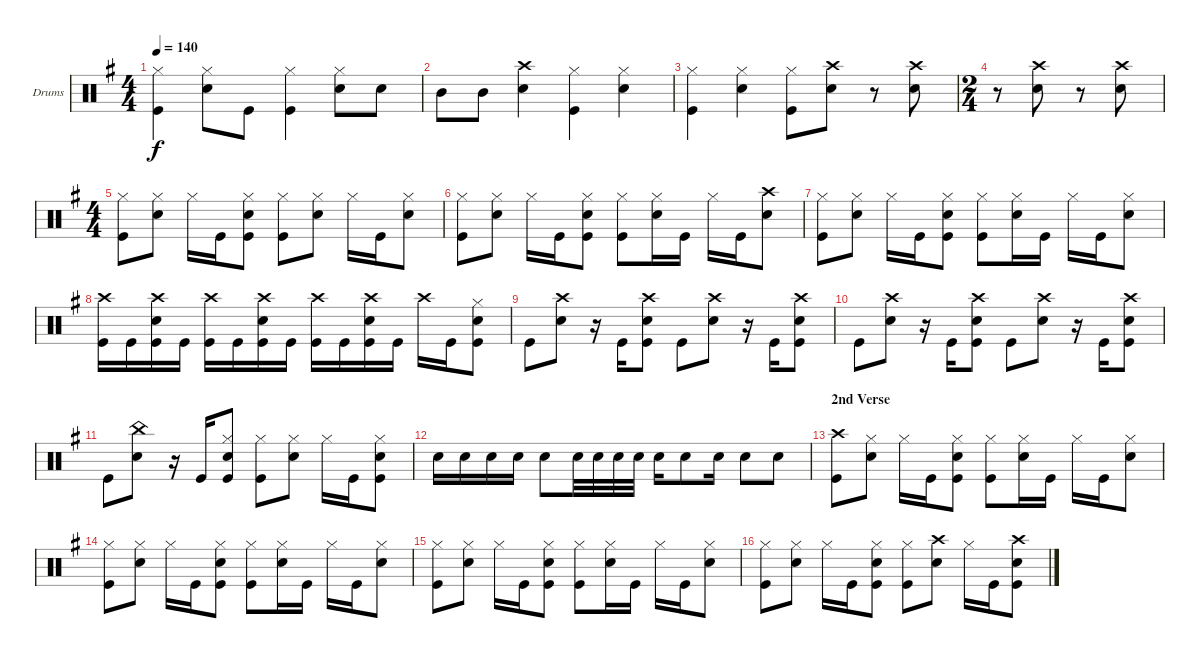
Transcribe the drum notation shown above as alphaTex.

\bracketExtendMode groupsimilarinstruments
\firstSystemTrackNameOrientation horizontal
\otherSystemsTrackNameOrientation horizontal
\track ("Drumkit" "Drums") {instrument percussion}
\staff {score}
\articulation defaults
\ts (4 4)
\tempo 140
\clef neutral
\scale
1.04288
\ks g
("Kick (hit)" "Hi-Hat (closed)").4{dy f} ("Hi-Hat (closed)" "Snare (hit) 2").8 "Kick (hit)".8 ("Kick (hit)" "Hi-Hat (closed)").4 ("Hi-Hat (closed)" "Snare (hit) 2").8 "Snare (hit) 2".8 |
\scale
0.957125 "Mid Tom (hit)".8 "Mid Tom (hit)".8 ("Snare (hit) 2" "Crash high (hit)").4 ("Kick (hit)" "Hi-Hat (closed)").4 ("Hi-Hat (closed)" "Snare (hit) 2").4 |
\scale
1.04288 ("Kick (hit)" "Hi-Hat (closed)").4 ("Hi-Hat (closed)" "Snare (hit) 2").4 ("Hi-Hat (closed)" "Kick (hit)").8 ("Crash high (hit)" "Snare (hit) 2").8 r.8 ("Snare (hit) 2" "Crash high (hit)").8 |
\ts (2 4)
\scale
0.957125 r.8 ("Crash high (hit)" "Snare (hit) 2").8 r.8 ("Crash high (hit)" "Snare (hit) 2").8 |
\ts (4 4)
\scale
1.07314 ("Hi-Hat (closed)" "Kick (hit)").8 ("Snare (hit) 2" "Hi-Hat (closed)").8 "Hi-Hat (closed)".16 "Kick (hit)".16 ("Snare (hit) 2" "Hi-Hat (closed)" "Kick (hit)").8 ("Hi-Hat (closed)" "Kick (hit)").8 ("Snare (hit) 2" "Hi-Hat (closed)").8 "Hi-Hat (closed)".16 "Kick (hit)".16 ("Snare (hit) 2" "Hi-Hat (closed)").8 |
\scale
0.92686 ("Kick (hit)" "Hi-Hat (closed)").8 ("Snare (hit) 2" "Hi-Hat (closed)").8 "Hi-Hat (closed)".16 "Kick (hit)".16 ("Kick (hit)" "Snare (hit) 2" "Hi-Hat (closed)").8 ("Kick (hit)" "Hi-Hat (closed)").8 ("Snare (hit) 2" "Hi-Hat (closed)").16 "Kick (hit)".16 "Hi-Hat (closed)".16 "Kick (hit)".16 ("Crash high (hit)" "Snare (hit) 2").8 |
\scale
1.04288 ("Kick (hit)" "Hi-Hat (closed)").8 ("Snare (hit) 2" "Hi-Hat (closed)").8 "Hi-Hat (closed)".16 "Kick (hit)".16 ("Kick (hit)" "Snare (hit) 2" "Hi-Hat (closed)").8 ("Kick (hit)" "Hi-Hat (closed)").8 ("Snare (hit) 2" "Hi-Hat (closed)").16 "Kick (hit)".16 "Hi-Hat (closed)".16 "Kick (hit)".16 ("Hi-Hat (closed)" "Snare (hit) 2").8 |
\scale
0.957125 ("Crash high (hit)" "Kick (hit)").16 "Kick (hit)".16 ("Snare (hit) 2" "Crash high (hit)" "Kick (hit)").16 "Kick (hit)".16 ("Crash high (hit)" "Kick (hit)").16 "Kick (hit)".16 ("Snare (hit) 2" "Crash high (hit)" "Kick (hit)").16 "Kick (hit)".16 ("Crash high (hit)" "Kick (hit)").16 "Kick (hit)".16 ("Snare (hit) 2" "Crash high (hit)" "Kick (hit)").16 "Kick (hit)".16 "Crash high (hit)".16 "Kick (hit)".16 ("Hi-Hat (closed)" "Snare (hit) 2" "Kick (hit)").8 |
\scale
1.04288 "Kick (hit)".8 ("Snare (hit) 2" "Crash high (hit)").8 r.16 "Kick (hit)".16 ("Kick (hit)" "Snare (hit) 2" "Crash high (hit)").8 "Kick (hit)".8 ("Snare (hit) 2" "Crash high (hit)").8 r.16 "Kick (hit)".16 ("Kick (hit)" "Snare (hit) 2" "Crash high (hit)").8 |
\scale
0.957125 "Kick (hit)".8 ("Snare (hit) 2" "Crash high (hit)").8 r.16 "Kick (hit)".16 ("Kick (hit)" "Snare (hit) 2" "Crash high (hit)").8 "Kick (hit)".8 ("Snare (hit) 2" "Crash high (hit)").8 r.16 "Kick (hit)".16 ("Kick (hit)" "Snare (hit) 2" "Crash high (hit)").8 |
\scale
1.04288 "Kick (hit)".8 ("China (hit)" "Snare (hit) 2").8 r.16 "Kick (hit)".16 ("Hi-Hat (closed)" "Kick (hit)" "Snare (hit) 2").8 ("Hi-Hat (closed)" "Kick (hit)").8 ("Hi-Hat (closed)" "Snare (hit) 2").8 "Hi-Hat (closed)".16 "Kick (hit)".16 ("Hi-Hat (closed)" "Kick (hit)" "Snare (hit) 2").8 |
\scale
0.957125 "Snare (hit) 2".16 "Snare (hit) 2".16 "Snare (hit) 2".16 "Snare (hit) 2".16 "Snare (hit) 2".8 "Snare (hit) 2".32 "Snare (hit) 2".32 "Snare (hit) 2".32 "Snare (hit) 2".32 "Snare (hit) 2".16 "Snare (hit) 2".8 "Snare (hit) 2".16 "Snare (hit) 2".8 "Snare (hit) 2".8 |
\section ("" "2nd Verse")
\scale
1.04288 ("Kick (hit)" "Crash high (hit)").8 ("Snare (hit) 2" "Hi-Hat (closed)").8 "Hi-Hat (closed)".16 "Kick (hit)".16 ("Kick (hit)" "Snare (hit) 2" "Hi-Hat (closed)").8 ("Kick (hit)" "Hi-Hat (closed)").8 ("Snare (hit) 2" "Hi-Hat (closed)").16 "Kick (hit)".16 "Hi-Hat (closed)".16 "Kick (hit)".16 ("Snare (hit) 2" "Hi-Hat (closed)").8 |
\scale
0.957125 ("Hi-Hat (closed)" "Kick (hit)").8 ("Snare (hit) 2" "Hi-Hat (closed)").8 "Hi-Hat (closed)".16 "Kick (hit)".16 ("Kick (hit)" "Snare (hit) 2" "Hi-Hat (closed)").8 ("Kick (hit)" "Hi-Hat (closed)").8 ("Snare (hit) 2" "Hi-Hat (closed)").16 "Kick (hit)".16 "Hi-Hat (closed)".16 "Kick (hit)".16 ("Snare (hit) 2" "Hi-Hat (closed)").8 |
\scale
1.04288 ("Hi-Hat (closed)" "Kick (hit)").8 ("Snare (hit) 2" "Hi-Hat (closed)").8 "Hi-Hat (closed)".16 "Kick (hit)".16 ("Snare (hit) 2" "Hi-Hat (closed)" "Kick (hit)").8 ("Hi-Hat (closed)" "Kick (hit)").8 ("Snare (hit) 2" "Hi-Hat (closed)").16 "Kick (hit)".16 "Hi-Hat (closed)".16 "Kick (hit)".16 ("Snare (hit) 2" "Hi-Hat (closed)").8 |
\scale
0.957125 ("Hi-Hat (closed)" "Kick (hit)").8 ("Snare (hit) 2" "Hi-Hat (closed)").8 "Hi-Hat (closed)".16 "Kick (hit)".16 ("Kick (hit)" "Snare (hit) 2" "Hi-Hat (closed)").8 ("Hi-Hat (closed)" "Kick (hit)").8 ("Crash high (hit)" "Snare (hit) 2").8 "Hi-Hat (closed)".16 "Kick (hit)".16 ("Kick (hit)" "Crash high (hit)" "Snare (hit) 2").8
